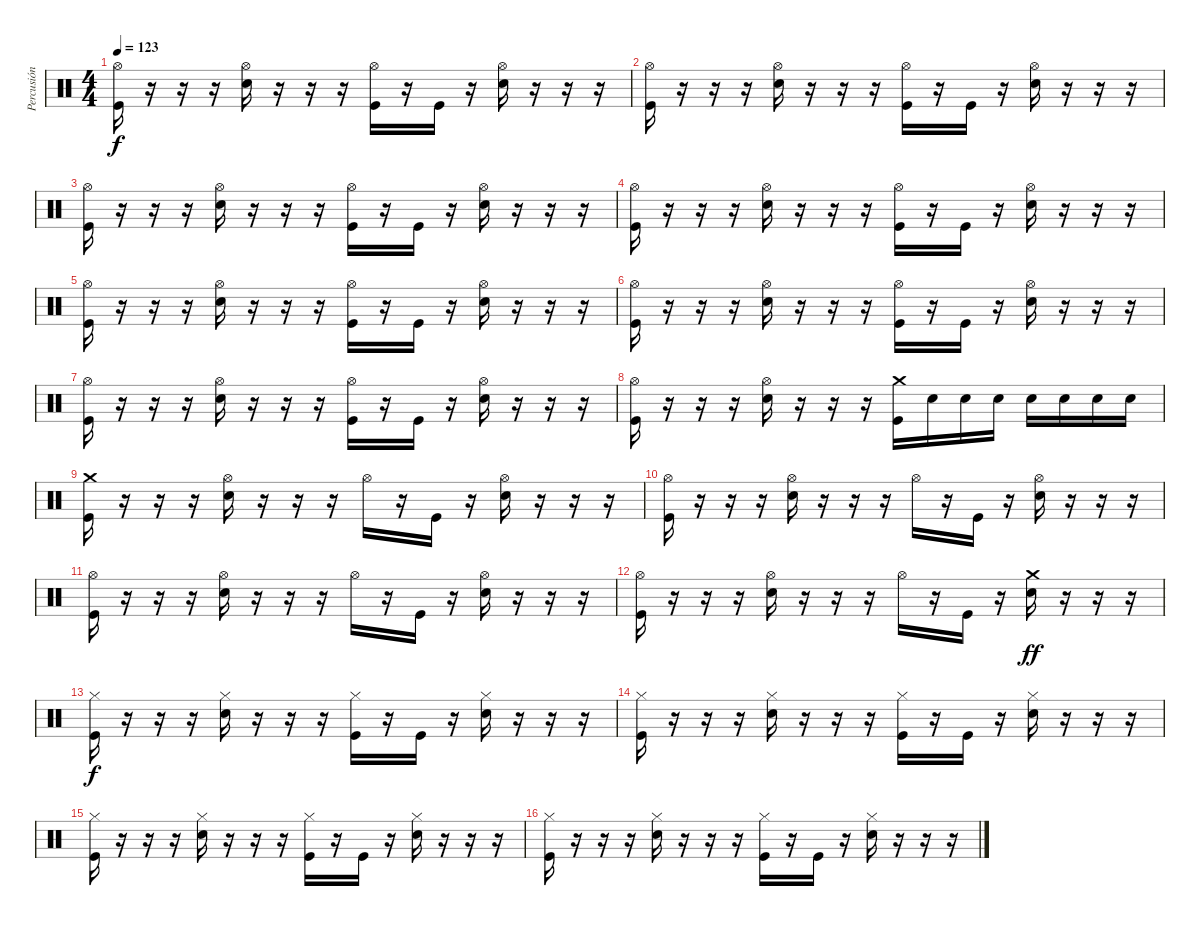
\track ("Percusión" "Percusión") {instrument percussion}
\staff {score}
\articulation defaults
\ts (4 4)
\tempo 123
\clef neutral
\ks c
("Hi-Hat (open)" "Kick (hit)").16{dy f} r.16 r.16 r.16 ("Hi-Hat (open)" "Snare (hit) 2").16 r.16 r.16 r.16 ("Hi-Hat (open)" "Kick (hit)").16 r.16 "Kick (hit)".16 r.16 ("Hi-Hat (open)" "Snare (hit) 2").16 r.16 r.16 r.16 |
("Hi-Hat (open)" "Kick (hit)").16 r.16 r.16 r.16 ("Hi-Hat (open)" "Snare (hit) 2").16 r.16 r.16 r.16 ("Hi-Hat (open)" "Kick (hit)").16 r.16 "Kick (hit)".16 r.16 ("Hi-Hat (open)" "Snare (hit) 2").16 r.16 r.16 r.16 |
("Hi-Hat (open)" "Kick (hit)").16 r.16 r.16 r.16 ("Hi-Hat (open)" "Snare (hit) 2").16 r.16 r.16 r.16 ("Hi-Hat (open)" "Kick (hit)").16 r.16 "Kick (hit)".16 r.16 ("Hi-Hat (open)" "Snare (hit) 2").16 r.16 r.16 r.16 |
("Hi-Hat (open)" "Kick (hit)").16 r.16 r.16 r.16 ("Hi-Hat (open)" "Snare (hit) 2").16 r.16 r.16 r.16 ("Hi-Hat (open)" "Kick (hit)").16 r.16 "Kick (hit)".16 r.16 ("Hi-Hat (open)" "Snare (hit) 2").16 r.16 r.16 r.16 |
("Hi-Hat (open)" "Kick (hit)").16 r.16 r.16 r.16 ("Hi-Hat (open)" "Snare (hit) 2").16 r.16 r.16 r.16 ("Hi-Hat (open)" "Kick (hit)").16 r.16 "Kick (hit)".16 r.16 ("Hi-Hat (open)" "Snare (hit) 2").16 r.16 r.16 r.16 |
("Hi-Hat (open)" "Kick (hit)").16 r.16 r.16 r.16 ("Hi-Hat (open)" "Snare (hit) 2").16 r.16 r.16 r.16 ("Hi-Hat (open)" "Kick (hit)").16 r.16 "Kick (hit)".16 r.16 ("Hi-Hat (open)" "Snare (hit) 2").16 r.16 r.16 r.16 |
("Hi-Hat (open)" "Kick (hit)").16 r.16 r.16 r.16 ("Hi-Hat (open)" "Snare (hit) 2").16 r.16 r.16 r.16 ("Hi-Hat (open)" "Kick (hit)").16 r.16 "Kick (hit)".16 r.16 ("Hi-Hat (open)" "Snare (hit) 2").16 r.16 r.16 r.16 |
("Hi-Hat (open)" "Kick (hit)").16 r.16 r.16 r.16 ("Hi-Hat (open)" "Snare (hit) 2").16 r.16 r.16 r.16 ("Crash medium (hit)" "Kick (hit)").16 "Snare (hit) 2".16 "Snare (hit) 2".16 "Snare (hit) 2".16 "Snare (hit) 2".16 "Snare (hit) 2".16 "Snare (hit) 2".16 "Snare (hit) 2".16 |
("Crash medium (hit)" "Kick (hit)").16 r.16 r.16 r.16 ("Hi-Hat (open)" "Snare (hit) 2").16 r.16 r.16 r.16 "Hi-Hat (open)".16 r.16 "Kick (hit)".16 r.16 ("Hi-Hat (open)" "Snare (hit) 2").16 r.16 r.16 r.16 |
("Hi-Hat (open)" "Kick (hit)").16 r.16 r.16 r.16 ("Hi-Hat (open)" "Snare (hit) 2").16 r.16 r.16 r.16 "Hi-Hat (open)".16 r.16 "Kick (hit)".16 r.16 ("Hi-Hat (open)" "Snare (hit) 2").16 r.16 r.16 r.16 |
("Hi-Hat (open)" "Kick (hit)").16 r.16 r.16 r.16 ("Hi-Hat (open)" "Snare (hit) 2").16 r.16 r.16 r.16 "Hi-Hat (open)".16 r.16 "Kick (hit)".16 r.16 ("Hi-Hat (open)" "Snare (hit) 2").16 r.16 r.16 r.16 |
("Hi-Hat (open)" "Kick (hit)").16 r.16 r.16 r.16 ("Hi-Hat (open)" "Snare (hit) 2").16 r.16 r.16 r.16 "Hi-Hat (open)".16 r.16 "Kick (hit)".16 r.16 ("Crash medium (hit)" "Snare (hit) 2").16{dy ff} r.16 r.16 r.16 |
("Hi-Hat (closed)" "Kick (hit)").16{dy f} r.16 r.16 r.16 ("Hi-Hat (closed)" "Snare (hit) 2").16 r.16 r.16 r.16 ("Hi-Hat (closed)" "Kick (hit)").16 r.16 "Kick (hit)".16 r.16 ("Hi-Hat (closed)" "Snare (hit) 2").16 r.16 r.16 r.16 |
("Hi-Hat (closed)" "Kick (hit)").16 r.16 r.16 r.16 ("Hi-Hat (closed)" "Snare (hit) 2").16 r.16 r.16 r.16 ("Hi-Hat (closed)" "Kick (hit)").16 r.16 "Kick (hit)".16 r.16 ("Hi-Hat (closed)" "Snare (hit) 2").16 r.16 r.16 r.16 |
("Hi-Hat (closed)" "Kick (hit)").16 r.16 r.16 r.16 ("Hi-Hat (closed)" "Snare (hit) 2").16 r.16 r.16 r.16 ("Hi-Hat (closed)" "Kick (hit)").16 r.16 "Kick (hit)".16 r.16 ("Hi-Hat (closed)" "Snare (hit) 2").16 r.16 r.16 r.16 |
("Hi-Hat (closed)" "Kick (hit)").16 r.16 r.16 r.16 ("Hi-Hat (closed)" "Snare (hit) 2").16 r.16 r.16 r.16 ("Hi-Hat (closed)" "Kick (hit)").16 r.16 "Kick (hit)".16 r.16 ("Hi-Hat (closed)" "Snare (hit) 2").16 r.16 r.16 r.16
